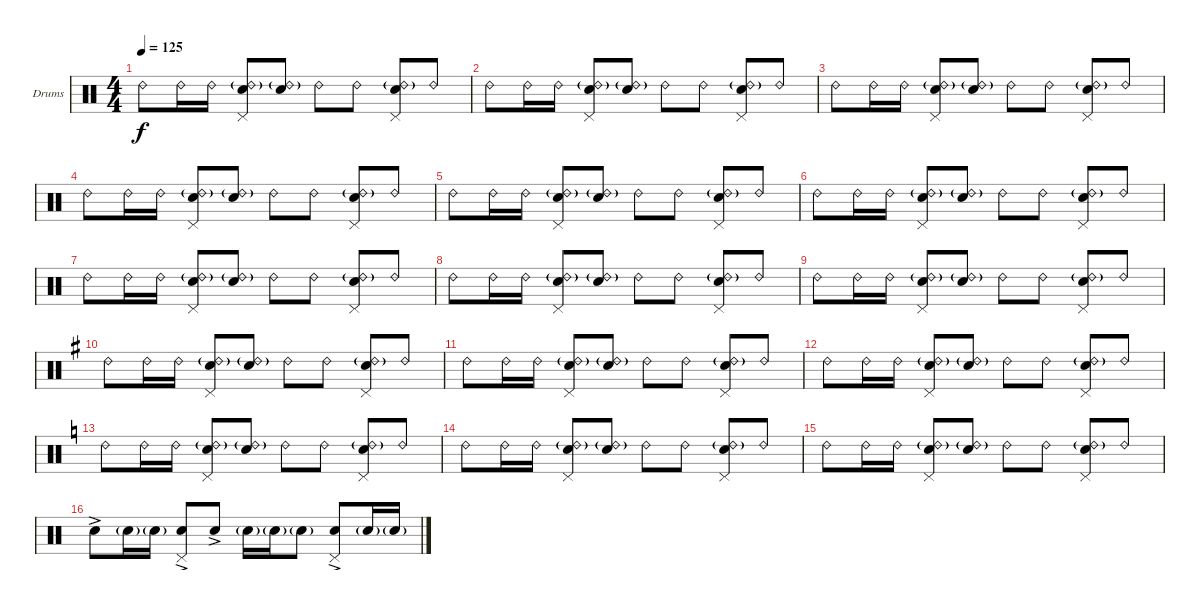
\defaultSystemsLayout 4
\bracketExtendMode groupsimilarinstruments
\firstSystemTrackNameOrientation horizontal
\otherSystemsTrackNameOrientation horizontal
\track ("Drums" "Drums") {instrument percussion}
\staff {score}
\articulation defaults
\ts (4 4)
\tempo 125
\clef neutral
\scale
0.333333
\ks c "Ride (bell) 2".8{dy f} "Ride (bell) 2".16 "Ride (bell) 2".16
("Ride (bell) 2"{g} "Snare (hit) 2" "Pedal Hi-Hat (hit)").8 ("Snare (hit) 2" "Ride (bell) 2"{g}).8 "Ride (bell) 2".8 "Ride (bell) 2".8 ("Ride (bell) 2"{g} "Snare (hit) 2" "Pedal Hi-Hat (hit)").8 "Ride (bell) 2".8 |
\scale
0.333333 "Ride (bell) 2".8 "Ride (bell) 2".16 "Ride (bell) 2".16 ("Ride (bell) 2"{g} "Snare (hit) 2" "Pedal Hi-Hat (hit)").8 ("Snare (hit) 2" "Ride (bell) 2"{g}).8 "Ride (bell) 2".8 "Ride (bell) 2".8 ("Ride (bell) 2"{g} "Snare (hit) 2" "Pedal Hi-Hat (hit)").8 "Ride (bell) 2".8 |
\scale
0.333333 "Ride (bell) 2".8 "Ride (bell) 2".16 "Ride (bell) 2".16 ("Ride (bell) 2"{g} "Snare (hit) 2" "Pedal Hi-Hat (hit)").8 ("Snare (hit) 2" "Ride (bell) 2"{g}).8 "Ride (bell) 2".8 "Ride (bell) 2".8 ("Ride (bell) 2"{g} "Snare (hit) 2" "Pedal Hi-Hat (hit)").8 "Ride (bell) 2".8 |
\scale
0.333333 "Ride (bell) 2".8 "Ride (bell) 2".16 "Ride (bell) 2".16 ("Ride (bell) 2"{g} "Snare (hit) 2" "Pedal Hi-Hat (hit)").8 ("Snare (hit) 2" "Ride (bell) 2"{g}).8 "Ride (bell) 2".8 "Ride (bell) 2".8 ("Ride (bell) 2"{g} "Snare (hit) 2" "Pedal Hi-Hat (hit)").8 "Ride (bell) 2".8 |
\scale
0.333333 "Ride (bell) 2".8 "Ride (bell) 2".16 "Ride (bell) 2".16 ("Ride (bell) 2"{g} "Snare (hit) 2" "Pedal Hi-Hat (hit)").8 ("Snare (hit) 2" "Ride (bell) 2"{g}).8 "Ride (bell) 2".8 "Ride (bell) 2".8 ("Ride (bell) 2"{g} "Snare (hit) 2" "Pedal Hi-Hat (hit)").8 "Ride (bell) 2".8 |
\scale
0.333333 "Ride (bell) 2".8 "Ride (bell) 2".16 "Ride (bell) 2".16 ("Ride (bell) 2"{g} "Snare (hit) 2" "Pedal Hi-Hat (hit)").8 ("Snare (hit) 2" "Ride (bell) 2"{g}).8 "Ride (bell) 2".8 "Ride (bell) 2".8 ("Ride (bell) 2"{g} "Snare (hit) 2" "Pedal Hi-Hat (hit)").8 "Ride (bell) 2".8 |
\scale
0.333333 "Ride (bell) 2".8 "Ride (bell) 2".16 "Ride (bell) 2".16 ("Ride (bell) 2"{g} "Snare (hit) 2" "Pedal Hi-Hat (hit)").8 ("Snare (hit) 2" "Ride (bell) 2"{g}).8 "Ride (bell) 2".8 "Ride (bell) 2".8 ("Ride (bell) 2"{g} "Snare (hit) 2" "Pedal Hi-Hat (hit)").8 "Ride (bell) 2".8 |
\scale
0.333333 "Ride (bell) 2".8 "Ride (bell) 2".16 "Ride (bell) 2".16 ("Ride (bell) 2"{g} "Snare (hit) 2" "Pedal Hi-Hat (hit)").8 ("Snare (hit) 2" "Ride (bell) 2"{g}).8 "Ride (bell) 2".8 "Ride (bell) 2".8 ("Ride (bell) 2"{g} "Snare (hit) 2" "Pedal Hi-Hat (hit)").8 "Ride (bell) 2".8 |
\scale
0.333333 "Ride (bell) 2".8 "Ride (bell) 2".16 "Ride (bell) 2".16 ("Ride (bell) 2"{g} "Snare (hit) 2" "Pedal Hi-Hat (hit)").8 ("Snare (hit) 2" "Ride (bell) 2"{g}).8 "Ride (bell) 2".8 "Ride (bell) 2".8 ("Ride (bell) 2"{g} "Snare (hit) 2" "Pedal Hi-Hat (hit)").8 "Ride (bell) 2".8 |
\scale
0.333333
\ks g "Ride (bell) 2".8 "Ride (bell) 2".16 "Ride (bell) 2".16
("Ride (bell) 2"{g} "Snare (hit) 2" "Pedal Hi-Hat (hit)").8 ("Snare (hit) 2" "Ride (bell) 2"{g}).8 "Ride (bell) 2".8 "Ride (bell) 2".8 ("Ride (bell) 2"{g} "Snare (hit) 2" "Pedal Hi-Hat (hit)").8 "Ride (bell) 2".8 |
\scale
0.333333 "Ride (bell) 2".8 "Ride (bell) 2".16 "Ride (bell) 2".16 ("Ride (bell) 2"{g} "Snare (hit) 2" "Pedal Hi-Hat (hit)").8 ("Snare (hit) 2" "Ride (bell) 2"{g}).8 "Ride (bell) 2".8 "Ride (bell) 2".8 ("Ride (bell) 2"{g} "Snare (hit) 2" "Pedal Hi-Hat (hit)").8 "Ride (bell) 2".8 |
\scale
0.333333 "Ride (bell) 2".8 "Ride (bell) 2".16 "Ride (bell) 2".16 ("Ride (bell) 2"{g} "Snare (hit) 2" "Pedal Hi-Hat (hit)").8 ("Snare (hit) 2" "Ride (bell) 2"{g}).8 "Ride (bell) 2".8 "Ride (bell) 2".8 ("Ride (bell) 2"{g} "Snare (hit) 2" "Pedal Hi-Hat (hit)").8 "Ride (bell) 2".8 |
\scale
0.333333
\ks c "Ride (bell) 2".8 "Ride (bell) 2".16 "Ride (bell) 2".16
("Ride (bell) 2"{g} "Snare (hit) 2" "Pedal Hi-Hat (hit)").8 ("Snare (hit) 2" "Ride (bell) 2"{g}).8 "Ride (bell) 2".8 "Ride (bell) 2".8 ("Ride (bell) 2"{g} "Snare (hit) 2" "Pedal Hi-Hat (hit)").8 "Ride (bell) 2".8 |
\scale
0.333333 "Ride (bell) 2".8 "Ride (bell) 2".16 "Ride (bell) 2".16 ("Ride (bell) 2"{g} "Snare (hit) 2" "Pedal Hi-Hat (hit)").8 ("Snare (hit) 2" "Ride (bell) 2"{g}).8 "Ride (bell) 2".8 "Ride (bell) 2".8 ("Ride (bell) 2"{g} "Snare (hit) 2" "Pedal Hi-Hat (hit)").8 "Ride (bell) 2".8 |
\scale
0.333333 "Ride (bell) 2".8 "Ride (bell) 2".16 "Ride (bell) 2".16 ("Ride (bell) 2"{g} "Snare (hit) 2" "Pedal Hi-Hat (hit)").8 ("Snare (hit) 2" "Ride (bell) 2"{g}).8 "Ride (bell) 2".8 "Ride (bell) 2".8 ("Ride (bell) 2"{g} "Snare (hit) 2" "Pedal Hi-Hat (hit)").8 "Ride (bell) 2".8 |
\scale
0.333333 "Snare (hit) 2"{ac}.8 "Snare (hit) 2"{g}.16 "Snare (hit) 2"{g}.16 ("Snare (hit) 2"{ac} "Pedal Hi-Hat (hit)").8 "Snare (hit) 2"{ac}.8 "Snare (hit) 2"{g}.16 "Snare (hit) 2"{g}.16 "Snare (hit) 2"{g}.8 ("Snare (hit) 2"{ac} "Pedal Hi-Hat (hit)").8 "Snare (hit) 2"{g}.16 "Snare (hit) 2"{g}.16
